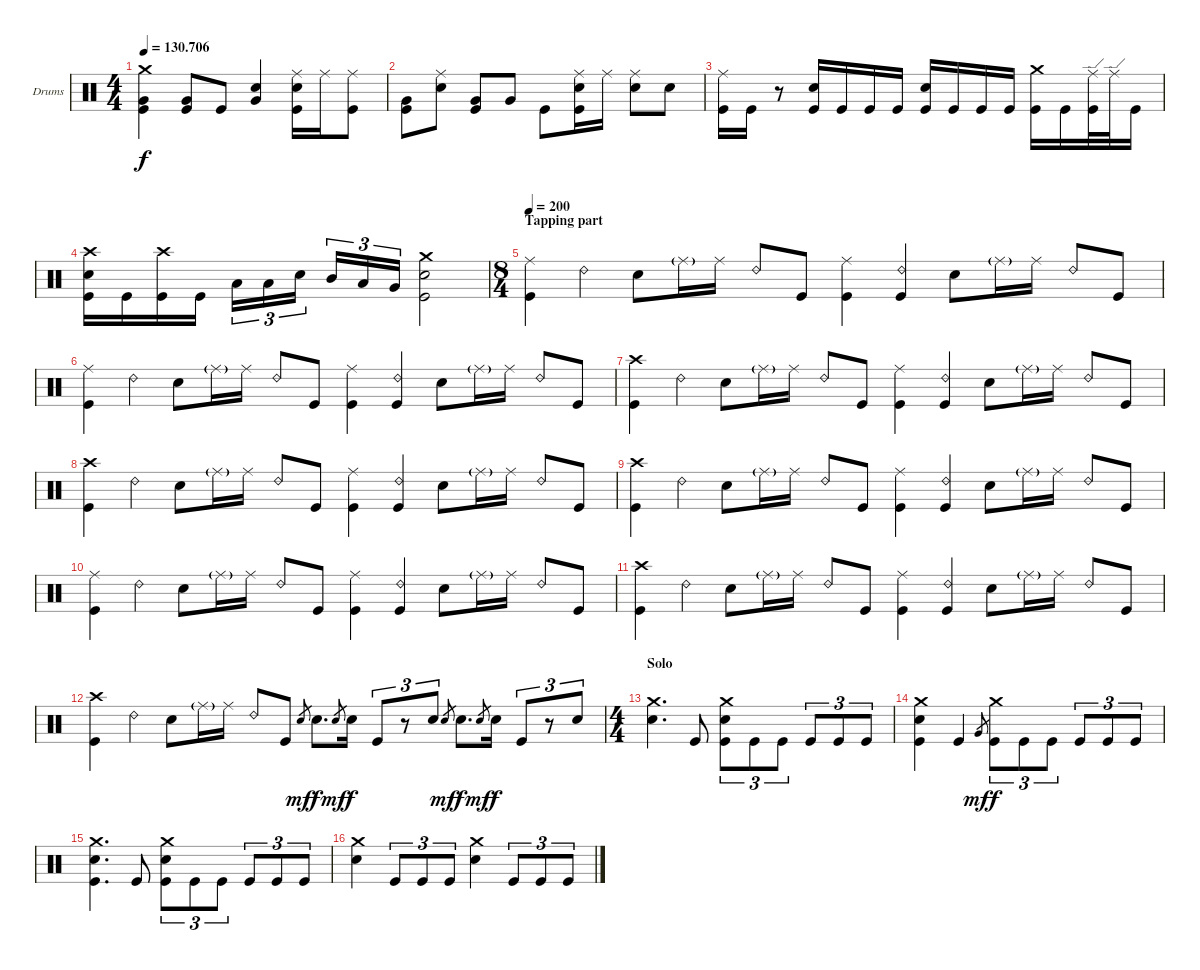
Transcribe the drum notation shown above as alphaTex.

\bracketExtendMode groupsimilarinstruments
\firstSystemTrackNameOrientation horizontal
\otherSystemsTrackNameOrientation horizontal
\track ("Drumkit" "Drums") {multiBarRest instrument percussion}
\staff {score}
\articulation defaults
\ts (4 4)
\tempo
130.706
\accidentals auto
\clef neutral
\ottava regular
\simile none
\ks c
("Crash medium (hit)" "Very Low Tom (hit)" "Kick (hit)").4{dy f} ("Very Low Tom (hit)" "Kick (hit)").8 "Kick (hit)".8 ("Snare (hit) 2" "Very Low Tom (hit)").4 ("Ride (middle)" "Snare (hit) 2" "Kick (hit)").16 "Ride (middle)".16 ("Ride (middle)" "Kick (hit)").8 |
("Very Low Tom (hit)" "Kick (hit)").8 ("Ride (middle)" "Snare (hit) 2").8 ("Very Low Tom (hit)" "Kick (hit)").8 "Very Low Tom (hit)".8 "Kick (hit)".8 ("Ride (middle)" "Snare (hit) 2" "Kick (hit)").16 "Ride (middle)".16 ("Ride (middle)" "Snare (hit) 2").8 "Snare (hit) 2".8 |
("Ride (middle)" "Kick (hit)").16 "Kick (hit)".16 r.8 ("Snare (hit) 2" "Kick (hit)").16 "Kick (hit)".16 "Kick (hit)".16 "Kick (hit)".16 ("Snare (hit) 2" "Kick (hit)").16 "Kick (hit)".16 "Kick (hit)".16 "Kick (hit)".16 ("Crash medium (hit)" "Kick (hit)").16 "Kick (hit)".16 ("Ride (edge)" "Kick (hit)").32 "Ride (edge)".32 "Kick (hit)".16 |
("Crash high (hit)" "Snare (hit) 2" "Kick (hit)").16 "Kick (hit)".16 ("Crash high (hit)" "Kick (hit)").16 "Kick (hit)".16 "Low Tom (hit)".16{tu (3 2)} "Low Tom (hit)".16{tu (3 2)} "Snare (hit) 2".16{tu (3 2)} "Mid Tom (hit)".16{tu (3 2)} "Low Tom (hit)".16{tu (3 2)} "Very Low Tom (hit)".16{tu (3 2)} ("Crash medium (hit)" "Snare (hit) 2" "Kick (hit)").2 |
\ts (8 4)
\section ("" "Tapping part")
\tempo 200
("Ride (middle)" "Kick (hit)").4 "Ride (bell) 2".4 "Snare (hit) 2".8 "Ride (middle)"{g}.16 "Ride (middle)".16 "Ride (bell) 2".8 "Kick (hit)".8 ("Ride (middle)" "Kick (hit)").4 ("Ride (bell) 2" "Kick (hit)").4 "Snare (hit) 2".8 "Ride (middle)"{g}.16 "Ride (middle)".16 "Ride (bell) 2".8 "Kick (hit)".8 |
("Ride (middle)" "Kick (hit)").4 "Ride (bell) 2".4 "Snare (hit) 2".8 "Ride (middle)"{g}.16 "Ride (middle)".16 "Ride (bell) 2".8 "Kick (hit)".8 ("Ride (middle)" "Kick (hit)").4 ("Ride (bell) 2" "Kick (hit)").4 "Snare (hit) 2".8 "Ride (middle)"{g}.16 "Ride (middle)".16 "Ride (bell) 2".8 "Kick (hit)".8 |
("Crash high (hit)" "Kick (hit)").4 "Ride (bell) 2".4 "Snare (hit) 2".8 "Ride (middle)"{g}.16 "Ride (middle)".16 "Ride (bell) 2".8 "Kick (hit)".8 ("Ride (middle)" "Kick (hit)").4 ("Ride (bell) 2" "Kick (hit)").4 "Snare (hit) 2".8 "Ride (middle)"{g}.16 "Ride (middle)".16 "Ride (bell) 2".8 "Kick (hit)".8 |
("Crash high (hit)" "Kick (hit)").4 "Ride (bell) 2".4 "Snare (hit) 2".8 "Ride (middle)"{g}.16 "Ride (middle)".16 "Ride (bell) 2".8 "Kick (hit)".8 ("Ride (middle)" "Kick (hit)").4 ("Ride (bell) 2" "Kick (hit)").4 "Snare (hit) 2".8 "Ride (middle)"{g}.16 "Ride (middle)".16 "Ride (bell) 2".8 "Kick (hit)".8 |
("Crash high (hit)" "Kick (hit)").4 "Ride (bell) 2".4 "Snare (hit) 2".8 "Ride (middle)"{g}.16 "Ride (middle)".16 "Ride (bell) 2".8 "Kick (hit)".8 ("Ride (middle)" "Kick (hit)").4 ("Ride (bell) 2" "Kick (hit)").4 "Snare (hit) 2".8 "Ride (middle)"{g}.16 "Ride (middle)".16 "Ride (bell) 2".8 "Kick (hit)".8 |
("Ride (middle)" "Kick (hit)").4 "Ride (bell) 2".4 "Snare (hit) 2".8 "Ride (middle)"{g}.16 "Ride (middle)".16 "Ride (bell) 2".8 "Kick (hit)".8 ("Ride (middle)" "Kick (hit)").4 ("Ride (bell) 2" "Kick (hit)").4 "Snare (hit) 2".8 "Ride (middle)"{g}.16 "Ride (middle)".16 "Ride (bell) 2".8 "Kick (hit)".8 |
("Crash high (hit)" "Kick (hit)").4 "Ride (bell) 2".4 "Snare (hit) 2".8 "Ride (middle)"{g}.16 "Ride (middle)".16 "Ride (bell) 2".8 "Kick (hit)".8 ("Ride (middle)" "Kick (hit)").4 ("Ride (bell) 2" "Kick (hit)").4 "Snare (hit) 2".8 "Ride (middle)"{g}.16 "Ride (middle)".16 "Ride (bell) 2".8 "Kick (hit)".8 |
("Crash high (hit)" "Kick (hit)").4 "Ride (bell) 2".4 "Snare (hit) 2".8 "Ride (middle)"{g}.16 "Ride (middle)".16 "Ride (bell) 2".8 "Kick (hit)".8 "Snare (hit) 2".8{gr dy mf} "Snare (hit) 2".8{d dy f} "Snare (hit) 2".8{gr dy mf} "Snare (hit) 2".16{dy f} "Kick (hit)".8{tu (3 2)} r.8{tu (3 2)} "Snare (hit) 2".8{tu (3 2)} "Snare (hit) 2".8{gr dy mf} "Snare (hit) 2".8{d dy f} "Snare (hit) 2".8{gr dy mf} "Snare (hit) 2".16{dy f} "Kick (hit)".8{tu (3 2)} r.8{tu (3 2)} "Snare (hit) 2".8{tu (3 2)} |
\ts (4 4)
\section ("" "Solo")
("Crash medium (hit)" "Snare (hit) 2").4{d} "Kick (hit)".8 ("Crash medium (hit)" "Snare (hit) 2" "Kick (hit)").8{tu (3 2)} "Kick (hit)".8{tu (3 2)} "Kick (hit)".8{tu (3 2)} "Kick (hit)".8{tu (3 2)} "Kick (hit)".8{tu (3 2)} "Kick (hit)".8{tu (3 2)} |
("Crash medium (hit)" "Snare (hit) 2" "Kick (hit)").4 "Kick (hit)".4 "Very Low Tom (hit)".8{gr dy mf} ("Crash medium (hit)" "Kick (hit)").8{tu (3 2) dy f} "Kick (hit)".8{tu (3 2)} "Kick (hit)".8{tu (3 2)} "Kick (hit)".8{tu (3 2)} "Kick (hit)".8{tu (3 2)} "Kick (hit)".8{tu (3 2)} |
("Crash medium (hit)" "Snare (hit) 2" "Kick (hit)").4{d} "Kick (hit)".8 ("Crash medium (hit)" "Snare (hit) 2" "Kick (hit)").8{tu (3 2)} "Kick (hit)".8{tu (3 2)} "Kick (hit)".8{tu (3 2)} "Kick (hit)".8{tu (3 2)} "Kick (hit)".8{tu (3 2)} "Kick (hit)".8{tu (3 2)} |
("Crash medium (hit)" "Snare (hit) 2").4 "Kick (hit)".8{tu (3 2)} "Kick (hit)".8{tu (3 2)} "Kick (hit)".8{tu (3 2)} ("Crash medium (hit)" "Snare (hit) 2").4 "Kick (hit)".8{tu (3 2)} "Kick (hit)".8{tu (3 2)} "Kick (hit)".8{tu (3 2)}
